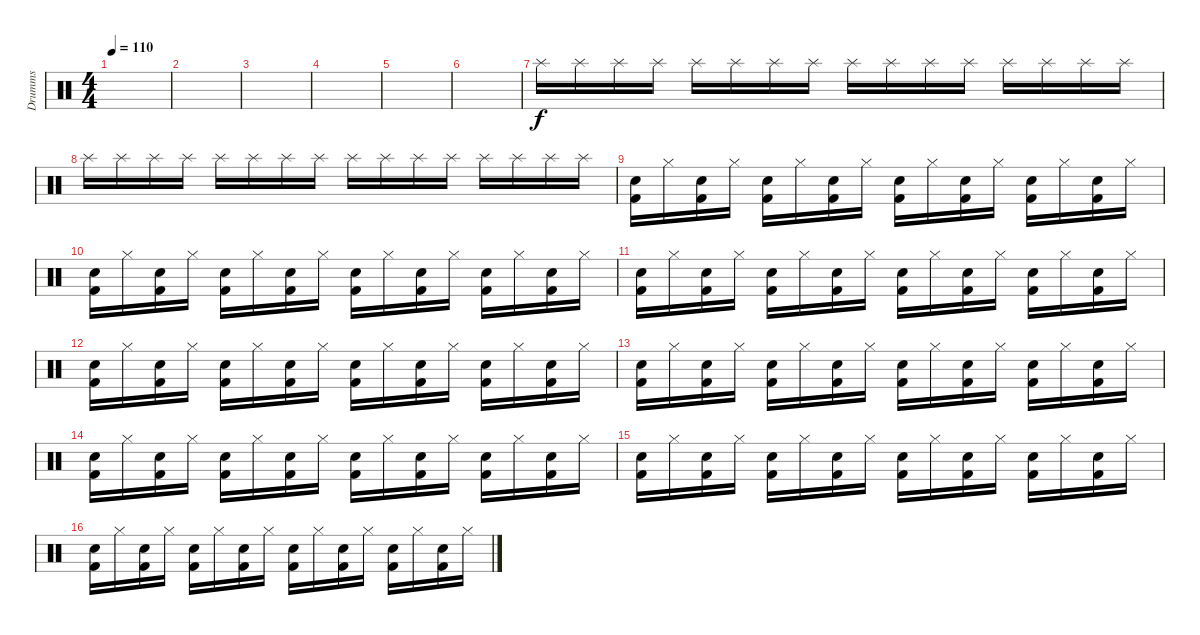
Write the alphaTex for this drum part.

\track ("Drumms" "Drumms") {instrument percussion}
\staff {score}
\articulation defaults
\ts (4 4)
\tempo 110
\clef neutral
\ks c
|
|
|
|
|
|
"Splash (hit)".16 "Splash (hit)".16 "Splash (hit)".16 "Splash (hit)".16 "Splash (hit)".16 "Splash (hit)".16 "Splash (hit)".16 "Splash (hit)".16 "Splash (hit)".16 "Splash (hit)".16 "Splash (hit)".16 "Splash (hit)".16 "Splash (hit)".16 "Splash (hit)".16 "Splash (hit)".16 "Splash (hit)".16 |
"Splash (hit)".16 "Splash (hit)".16 "Splash (hit)".16 "Splash (hit)".16 "Splash (hit)".16 "Splash (hit)".16 "Splash (hit)".16 "Splash (hit)".16 "Splash (hit)".16 "Splash (hit)".16 "Splash (hit)".16 "Splash (hit)".16 "Splash (hit)".16 "Splash (hit)".16 "Splash (hit)".16 "Splash (hit)".16 |
("Kick (hit) 2" "Snare (hit) 2").16 "Hi-Hat (closed)".16 ("Kick (hit) 2" "Snare (hit) 2").16 "Hi-Hat (closed)".16 ("Kick (hit) 2" "Snare (hit) 2").16 "Hi-Hat (closed)".16 ("Kick (hit) 2" "Snare (hit) 2").16 "Hi-Hat (closed)".16 ("Kick (hit) 2" "Snare (hit) 2").16 "Hi-Hat (closed)".16 ("Kick (hit) 2" "Snare (hit) 2").16 "Hi-Hat (closed)".16 ("Kick (hit) 2" "Snare (hit) 2").16 "Hi-Hat (closed)".16 ("Kick (hit) 2" "Snare (hit) 2").16 "Hi-Hat (closed)".16 |
("Kick (hit) 2" "Snare (hit) 2").16 "Hi-Hat (closed)".16 ("Kick (hit) 2" "Snare (hit) 2").16 "Hi-Hat (closed)".16 ("Kick (hit) 2" "Snare (hit) 2").16 "Hi-Hat (closed)".16 ("Kick (hit) 2" "Snare (hit) 2").16 "Hi-Hat (closed)".16 ("Kick (hit) 2" "Snare (hit) 2").16 "Hi-Hat (closed)".16 ("Kick (hit) 2" "Snare (hit) 2").16 "Hi-Hat (closed)".16 ("Kick (hit) 2" "Snare (hit) 2").16 "Hi-Hat (closed)".16 ("Kick (hit) 2" "Snare (hit) 2").16 "Hi-Hat (closed)".16 |
("Kick (hit) 2" "Snare (hit) 2").16 "Hi-Hat (closed)".16 ("Kick (hit) 2" "Snare (hit) 2").16 "Hi-Hat (closed)".16 ("Kick (hit) 2" "Snare (hit) 2").16 "Hi-Hat (closed)".16 ("Kick (hit) 2" "Snare (hit) 2").16 "Hi-Hat (closed)".16 ("Kick (hit) 2" "Snare (hit) 2").16 "Hi-Hat (closed)".16 ("Kick (hit) 2" "Snare (hit) 2").16 "Hi-Hat (closed)".16 ("Kick (hit) 2" "Snare (hit) 2").16 "Hi-Hat (closed)".16 ("Kick (hit) 2" "Snare (hit) 2").16 "Hi-Hat (closed)".16 |
("Kick (hit) 2" "Snare (hit) 2").16 "Hi-Hat (closed)".16 ("Kick (hit) 2" "Snare (hit) 2").16 "Hi-Hat (closed)".16 ("Kick (hit) 2" "Snare (hit) 2").16 "Hi-Hat (closed)".16 ("Kick (hit) 2" "Snare (hit) 2").16 "Hi-Hat (closed)".16 ("Kick (hit) 2" "Snare (hit) 2").16 "Hi-Hat (closed)".16 ("Kick (hit) 2" "Snare (hit) 2").16 "Hi-Hat (closed)".16 ("Kick (hit) 2" "Snare (hit) 2").16 "Hi-Hat (closed)".16 ("Kick (hit) 2" "Snare (hit) 2").16 "Hi-Hat (closed)".16 |
("Kick (hit) 2" "Snare (hit) 2").16 "Hi-Hat (closed)".16 ("Kick (hit) 2" "Snare (hit) 2").16 "Hi-Hat (closed)".16 ("Kick (hit) 2" "Snare (hit) 2").16 "Hi-Hat (closed)".16 ("Kick (hit) 2" "Snare (hit) 2").16 "Hi-Hat (closed)".16 ("Kick (hit) 2" "Snare (hit) 2").16 "Hi-Hat (closed)".16 ("Kick (hit) 2" "Snare (hit) 2").16 "Hi-Hat (closed)".16 ("Kick (hit) 2" "Snare (hit) 2").16 "Hi-Hat (closed)".16 ("Kick (hit) 2" "Snare (hit) 2").16 "Hi-Hat (closed)".16 |
("Kick (hit) 2" "Snare (hit) 2").16 "Hi-Hat (closed)".16 ("Kick (hit) 2" "Snare (hit) 2").16 "Hi-Hat (closed)".16 ("Kick (hit) 2" "Snare (hit) 2").16 "Hi-Hat (closed)".16 ("Kick (hit) 2" "Snare (hit) 2").16 "Hi-Hat (closed)".16 ("Kick (hit) 2" "Snare (hit) 2").16 "Hi-Hat (closed)".16 ("Kick (hit) 2" "Snare (hit) 2").16 "Hi-Hat (closed)".16 ("Kick (hit) 2" "Snare (hit) 2").16 "Hi-Hat (closed)".16 ("Kick (hit) 2" "Snare (hit) 2").16 "Hi-Hat (closed)".16 |
("Kick (hit) 2" "Snare (hit) 2").16 "Hi-Hat (closed)".16 ("Kick (hit) 2" "Snare (hit) 2").16 "Hi-Hat (closed)".16 ("Kick (hit) 2" "Snare (hit) 2").16 "Hi-Hat (closed)".16 ("Kick (hit) 2" "Snare (hit) 2").16 "Hi-Hat (closed)".16 ("Kick (hit) 2" "Snare (hit) 2").16 "Hi-Hat (closed)".16 ("Kick (hit) 2" "Snare (hit) 2").16 "Hi-Hat (closed)".16 ("Kick (hit) 2" "Snare (hit) 2").16 "Hi-Hat (closed)".16 ("Kick (hit) 2" "Snare (hit) 2").16 "Hi-Hat (closed)".16 |
("Kick (hit) 2" "Snare (hit) 2").16 "Hi-Hat (closed)".16 ("Kick (hit) 2" "Snare (hit) 2").16 "Hi-Hat (closed)".16 ("Kick (hit) 2" "Snare (hit) 2").16 "Hi-Hat (closed)".16 ("Kick (hit) 2" "Snare (hit) 2").16 "Hi-Hat (closed)".16 ("Kick (hit) 2" "Snare (hit) 2").16 "Hi-Hat (closed)".16 ("Kick (hit) 2" "Snare (hit) 2").16 "Hi-Hat (closed)".16 ("Kick (hit) 2" "Snare (hit) 2").16 "Hi-Hat (closed)".16 ("Kick (hit) 2" "Snare (hit) 2").16 "Hi-Hat (closed)".16
